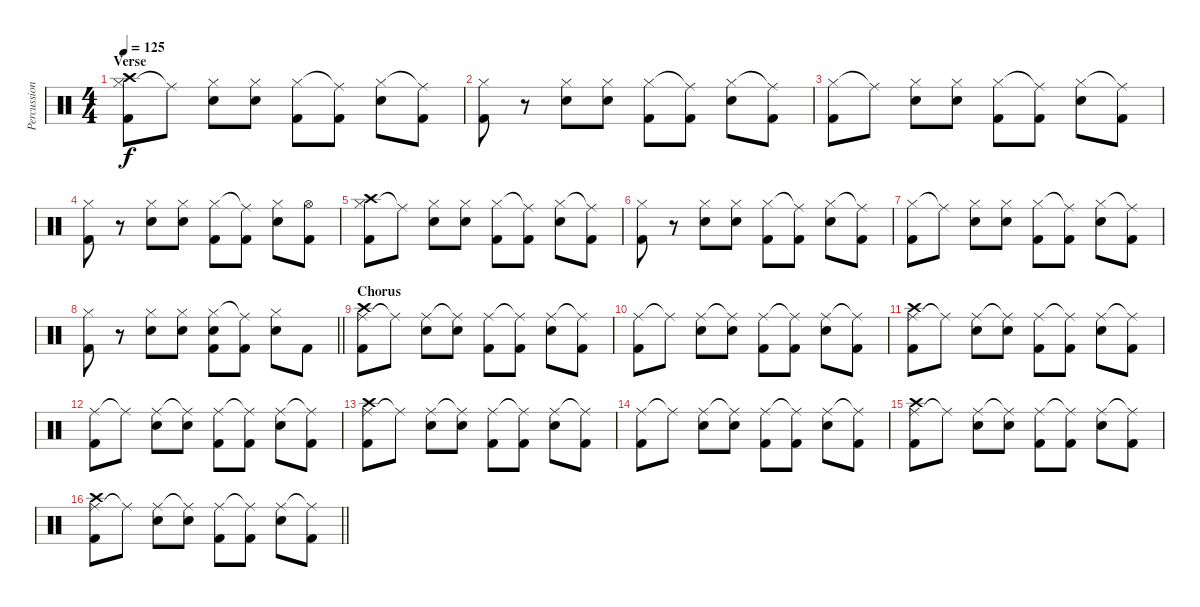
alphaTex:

\track ("Percussion" "Percussion") {instrument percussion}
\staff {score}
\articulation defaults
\ts (4 4)
\section ("" "Verse")
\tempo 125
\clef neutral
\ks c
("Hi-Hat (closed)" "Crash high (hit)" "Kick (hit) 2").8{dy f} "Ride (middle)"{t}.8 ("Hi-Hat (closed)" "Snare (hit) 2").8 ("Hi-Hat (closed)" "Snare (hit) 2").8 ("Hi-Hat (closed)" "Kick (hit) 2").8 ("Ride (middle)"{t} "Kick (hit) 2").8 ("Hi-Hat (closed)" "Snare (hit) 2").8 ("Ride (middle)"{t} "Kick (hit) 2").8 |
("Hi-Hat (closed)" "Kick (hit) 2").8 r.8 ("Hi-Hat (closed)" "Snare (hit) 2").8 ("Hi-Hat (closed)" "Snare (hit) 2").8 ("Hi-Hat (closed)" "Kick (hit) 2").8 ("Ride (middle)"{t} "Kick (hit) 2").8 ("Hi-Hat (closed)" "Snare (hit) 2").8 ("Ride (middle)"{t} "Kick (hit) 2").8 |
("Hi-Hat (closed)" "Kick (hit) 2").8 "Ride (middle)"{t}.8 ("Hi-Hat (closed)" "Snare (hit) 2").8 ("Hi-Hat (closed)" "Snare (hit) 2").8 ("Hi-Hat (closed)" "Kick (hit) 2").8 ("Ride (middle)"{t} "Kick (hit) 2").8 ("Hi-Hat (closed)" "Snare (hit) 2").8 ("Ride (middle)"{t} "Kick (hit) 2").8 |
("Hi-Hat (closed)" "Kick (hit) 2").8 r.8 ("Hi-Hat (closed)" "Snare (hit) 2").8 ("Hi-Hat (closed)" "Snare (hit) 2").8 ("Hi-Hat (closed)" "Kick (hit) 2").8 ("Ride (middle)"{t} "Kick (hit) 2").8 ("Hi-Hat (closed)" "Snare (hit) 2").8 ("Hi-Hat (open)" "Kick (hit) 2").8 |
("Hi-Hat (closed)" "Crash high (hit)" "Kick (hit) 2").8 "Ride (middle)"{t}.8 ("Hi-Hat (closed)" "Snare (hit) 2").8 ("Hi-Hat (closed)" "Snare (hit) 2").8 ("Hi-Hat (closed)" "Kick (hit) 2").8 ("Ride (middle)"{t} "Kick (hit) 2").8 ("Hi-Hat (closed)" "Snare (hit) 2").8 ("Ride (middle)"{t} "Kick (hit) 2").8 |
("Hi-Hat (closed)" "Kick (hit) 2").8 r.8 ("Hi-Hat (closed)" "Snare (hit) 2").8 ("Hi-Hat (closed)" "Snare (hit) 2").8 ("Hi-Hat (closed)" "Kick (hit) 2").8 ("Ride (middle)"{t} "Kick (hit) 2").8 ("Hi-Hat (closed)" "Snare (hit) 2").8 ("Ride (middle)"{t} "Kick (hit) 2").8 |
("Hi-Hat (closed)" "Kick (hit) 2").8 "Ride (middle)"{t}.8 ("Hi-Hat (closed)" "Snare (hit) 2").8 ("Hi-Hat (closed)" "Snare (hit) 2").8 ("Hi-Hat (closed)" "Kick (hit) 2").8 ("Ride (middle)"{t} "Kick (hit) 2").8 ("Hi-Hat (closed)" "Snare (hit) 2").8 ("Ride (middle)"{t} "Kick (hit) 2").8 |
\barLineRight lightlight
("Hi-Hat (closed)" "Kick (hit) 2").8 r.8 ("Hi-Hat (closed)" "Snare (hit) 2").8 ("Hi-Hat (closed)" "Snare (hit) 2").8 ("Hi-Hat (closed)" "Snare (hit) 2" "Kick (hit) 2").8 ("Ride (middle)"{t} "Kick (hit) 2").8 ("Hi-Hat (closed)" "Snare (hit) 2").8 "Kick (hit) 2".8 |
\section ("" "Chorus")
("Ride (middle)" "Crash high (hit)" "Kick (hit) 2").8 "Ride (middle)"{t}.8 ("Ride (middle)" "Snare (hit) 2").8 ("Ride (middle)"{t} "Snare (hit) 2").8 ("Ride (middle)" "Kick (hit) 2").8 ("Ride (middle)"{t} "Kick (hit) 2").8 ("Ride (middle)" "Snare (hit) 2").8 ("Ride (middle)"{t} "Kick (hit) 2").8 |
("Ride (middle)" "Kick (hit) 2").8 "Ride (middle)"{t}.8 ("Ride (middle)" "Snare (hit) 2").8 ("Ride (middle)"{t} "Snare (hit) 2").8 ("Ride (middle)" "Kick (hit) 2").8 ("Ride (middle)"{t} "Kick (hit) 2").8 ("Ride (middle)" "Snare (hit) 2").8 ("Ride (middle)"{t} "Kick (hit) 2").8 |
("Ride (middle)" "Crash high (hit)" "Kick (hit) 2").8 "Ride (middle)"{t}.8 ("Ride (middle)" "Snare (hit) 2").8 ("Ride (middle)"{t} "Snare (hit) 2").8 ("Ride (middle)" "Kick (hit) 2").8 ("Ride (middle)"{t} "Kick (hit) 2").8 ("Ride (middle)" "Snare (hit) 2").8 ("Ride (middle)"{t} "Kick (hit) 2").8 |
("Ride (middle)" "Kick (hit) 2").8 "Ride (middle)"{t}.8 ("Ride (middle)" "Snare (hit) 2").8 ("Ride (middle)"{t} "Snare (hit) 2").8 ("Ride (middle)" "Kick (hit) 2").8 ("Ride (middle)"{t} "Kick (hit) 2").8 ("Ride (middle)" "Snare (hit) 2").8 ("Ride (middle)"{t} "Kick (hit) 2").8 |
("Ride (middle)" "Crash high (hit)" "Kick (hit) 2").8 "Ride (middle)"{t}.8 ("Ride (middle)" "Snare (hit) 2").8 ("Ride (middle)"{t} "Snare (hit) 2").8 ("Ride (middle)" "Kick (hit) 2").8 ("Ride (middle)"{t} "Kick (hit) 2").8 ("Ride (middle)" "Snare (hit) 2").8 ("Ride (middle)"{t} "Kick (hit) 2").8 |
("Ride (middle)" "Kick (hit) 2").8 "Ride (middle)"{t}.8 ("Ride (middle)" "Snare (hit) 2").8 ("Ride (middle)"{t} "Snare (hit) 2").8 ("Ride (middle)" "Kick (hit) 2").8 ("Ride (middle)"{t} "Kick (hit) 2").8 ("Ride (middle)" "Snare (hit) 2").8 ("Ride (middle)"{t} "Kick (hit) 2").8 |
("Ride (middle)" "Crash high (hit)" "Kick (hit) 2").8 "Ride (middle)"{t}.8 ("Ride (middle)" "Snare (hit) 2").8 ("Ride (middle)"{t} "Snare (hit) 2").8 ("Ride (middle)" "Kick (hit) 2").8 ("Ride (middle)"{t} "Kick (hit) 2").8 ("Ride (middle)" "Snare (hit) 2").8 ("Ride (middle)"{t} "Kick (hit) 2").8 |
\barLineRight lightlight
("Ride (middle)" "Crash high (hit)" "Kick (hit) 2").8 "Ride (middle)"{t}.8 ("Ride (middle)" "Snare (hit) 2").8 ("Ride (middle)"{t} "Snare (hit) 2").8 ("Ride (middle)" "Kick (hit) 2").8 ("Ride (middle)"{t} "Kick (hit) 2").8 ("Ride (middle)" "Snare (hit) 2").8 ("Ride (middle)"{t} "Kick (hit) 2").8
